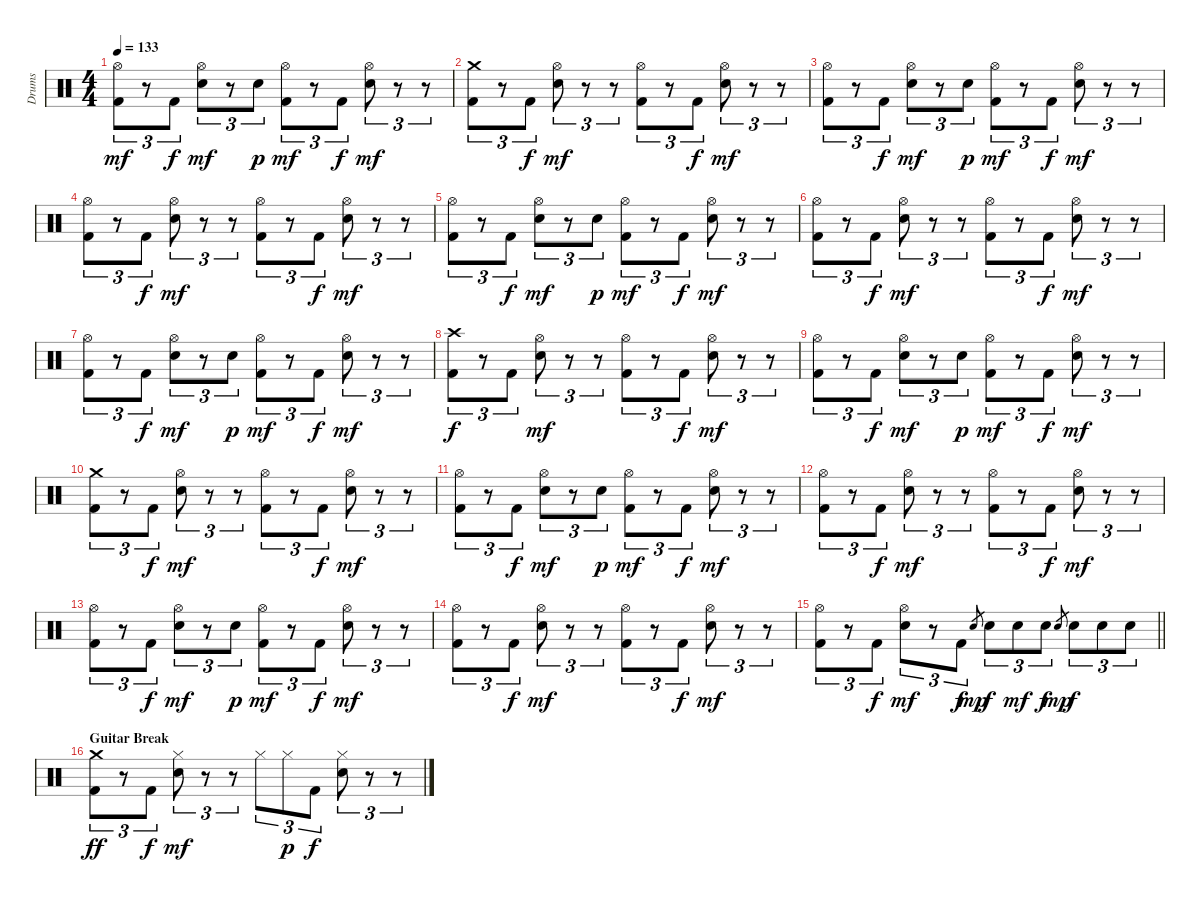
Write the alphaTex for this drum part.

\track ("Drums" "Drums") {instrument percussion}
\staff {score}
\articulation defaults
\ts (4 4)
\tempo 133
\clef neutral
\ks c
("Hi-Hat (open)" "Kick (hit) 2").8{tu (3 2) dy mf} r.8{tu (3 2)} "Kick (hit) 2".8{tu (3 2) dy f} ("Hi-Hat (open)" "Electric Snare (hit)").8{tu (3 2) dy mf} r.8{tu (3 2)} "Electric Snare (hit)".8{tu (3 2) dy p} ("Hi-Hat (open)" "Kick (hit) 2").8{tu (3 2) dy mf} r.8{tu (3 2)} "Kick (hit) 2".8{tu (3 2) dy f} ("Hi-Hat (open)" "Electric Snare (hit)").8{tu (3 2) dy mf} r.8{tu (3 2)} r.8{tu (3 2)} |
("Crash medium (hit)" "Kick (hit) 2").8{tu (3 2)} r.8{tu (3 2)} "Kick (hit) 2".8{tu (3 2) dy f} ("Hi-Hat (open)" "Electric Snare (hit)").8{tu (3 2) dy mf} r.8{tu (3 2)} r.8{tu (3 2)} ("Hi-Hat (open)" "Kick (hit) 2").8{tu (3 2)} r.8{tu (3 2)} "Kick (hit) 2".8{tu (3 2) dy f} ("Hi-Hat (open)" "Electric Snare (hit)").8{tu (3 2) dy mf} r.8{tu (3 2)} r.8{tu (3 2)} |
("Hi-Hat (open)" "Kick (hit) 2").8{tu (3 2)} r.8{tu (3 2)} "Kick (hit) 2".8{tu (3 2) dy f} ("Hi-Hat (open)" "Electric Snare (hit)").8{tu (3 2) dy mf} r.8{tu (3 2)} "Electric Snare (hit)".8{tu (3 2) dy p} ("Hi-Hat (open)" "Kick (hit) 2").8{tu (3 2) dy mf} r.8{tu (3 2)} "Kick (hit) 2".8{tu (3 2) dy f} ("Hi-Hat (open)" "Electric Snare (hit)").8{tu (3 2) dy mf} r.8{tu (3 2)} r.8{tu (3 2)} |
("Hi-Hat (open)" "Kick (hit) 2").8{tu (3 2)} r.8{tu (3 2)} "Kick (hit) 2".8{tu (3 2) dy f} ("Hi-Hat (open)" "Electric Snare (hit)").8{tu (3 2) dy mf} r.8{tu (3 2)} r.8{tu (3 2)} ("Hi-Hat (open)" "Kick (hit) 2").8{tu (3 2)} r.8{tu (3 2)} "Kick (hit) 2".8{tu (3 2) dy f} ("Hi-Hat (open)" "Electric Snare (hit)").8{tu (3 2) dy mf} r.8{tu (3 2)} r.8{tu (3 2)} |
("Hi-Hat (open)" "Kick (hit) 2").8{tu (3 2)} r.8{tu (3 2)} "Kick (hit) 2".8{tu (3 2) dy f} ("Hi-Hat (open)" "Electric Snare (hit)").8{tu (3 2) dy mf} r.8{tu (3 2)} "Electric Snare (hit)".8{tu (3 2) dy p} ("Hi-Hat (open)" "Kick (hit) 2").8{tu (3 2) dy mf} r.8{tu (3 2)} "Kick (hit) 2".8{tu (3 2) dy f} ("Hi-Hat (open)" "Electric Snare (hit)").8{tu (3 2) dy mf} r.8{tu (3 2)} r.8{tu (3 2)} |
("Hi-Hat (open)" "Kick (hit) 2").8{tu (3 2)} r.8{tu (3 2)} "Kick (hit) 2".8{tu (3 2) dy f} ("Hi-Hat (open)" "Electric Snare (hit)").8{tu (3 2) dy mf} r.8{tu (3 2)} r.8{tu (3 2)} ("Hi-Hat (open)" "Kick (hit) 2").8{tu (3 2)} r.8{tu (3 2)} "Kick (hit) 2".8{tu (3 2) dy f} ("Hi-Hat (open)" "Electric Snare (hit)").8{tu (3 2) dy mf} r.8{tu (3 2)} r.8{tu (3 2)} |
("Hi-Hat (open)" "Kick (hit) 2").8{tu (3 2)} r.8{tu (3 2)} "Kick (hit) 2".8{tu (3 2) dy f} ("Hi-Hat (open)" "Electric Snare (hit)").8{tu (3 2) dy mf} r.8{tu (3 2)} "Electric Snare (hit)".8{tu (3 2) dy p} ("Hi-Hat (open)" "Kick (hit) 2").8{tu (3 2) dy mf} r.8{tu (3 2)} "Kick (hit) 2".8{tu (3 2) dy f} ("Hi-Hat (open)" "Electric Snare (hit)").8{tu (3 2) dy mf} r.8{tu (3 2)} r.8{tu (3 2)} |
("Crash high (hit)" "Kick (hit) 2").8{tu (3 2) dy f} r.8{tu (3 2)} "Kick (hit) 2".8{tu (3 2)} ("Hi-Hat (open)" "Electric Snare (hit)").8{tu (3 2) dy mf} r.8{tu (3 2)} r.8{tu (3 2)} ("Hi-Hat (open)" "Kick (hit) 2").8{tu (3 2)} r.8{tu (3 2)} "Kick (hit) 2".8{tu (3 2) dy f} ("Hi-Hat (open)" "Electric Snare (hit)").8{tu (3 2) dy mf} r.8{tu (3 2)} r.8{tu (3 2)} |
("Hi-Hat (open)" "Kick (hit) 2").8{tu (3 2)} r.8{tu (3 2)} "Kick (hit) 2".8{tu (3 2) dy f} ("Hi-Hat (open)" "Electric Snare (hit)").8{tu (3 2) dy mf} r.8{tu (3 2)} "Electric Snare (hit)".8{tu (3 2) dy p} ("Hi-Hat (open)" "Kick (hit) 2").8{tu (3 2) dy mf} r.8{tu (3 2)} "Kick (hit) 2".8{tu (3 2) dy f} ("Hi-Hat (open)" "Electric Snare (hit)").8{tu (3 2) dy mf} r.8{tu (3 2)} r.8{tu (3 2)} |
("Crash medium (hit)" "Kick (hit) 2").8{tu (3 2)} r.8{tu (3 2)} "Kick (hit) 2".8{tu (3 2) dy f} ("Hi-Hat (open)" "Electric Snare (hit)").8{tu (3 2) dy mf} r.8{tu (3 2)} r.8{tu (3 2)} ("Hi-Hat (open)" "Kick (hit) 2").8{tu (3 2)} r.8{tu (3 2)} "Kick (hit) 2".8{tu (3 2) dy f} ("Hi-Hat (open)" "Electric Snare (hit)").8{tu (3 2) dy mf} r.8{tu (3 2)} r.8{tu (3 2)} |
("Hi-Hat (open)" "Kick (hit) 2").8{tu (3 2)} r.8{tu (3 2)} "Kick (hit) 2".8{tu (3 2) dy f} ("Hi-Hat (open)" "Electric Snare (hit)").8{tu (3 2) dy mf} r.8{tu (3 2)} "Electric Snare (hit)".8{tu (3 2) dy p} ("Hi-Hat (open)" "Kick (hit) 2").8{tu (3 2) dy mf} r.8{tu (3 2)} "Kick (hit) 2".8{tu (3 2) dy f} ("Hi-Hat (open)" "Electric Snare (hit)").8{tu (3 2) dy mf} r.8{tu (3 2)} r.8{tu (3 2)} |
("Hi-Hat (open)" "Kick (hit) 2").8{tu (3 2)} r.8{tu (3 2)} "Kick (hit) 2".8{tu (3 2) dy f} ("Hi-Hat (open)" "Electric Snare (hit)").8{tu (3 2) dy mf} r.8{tu (3 2)} r.8{tu (3 2)} ("Hi-Hat (open)" "Kick (hit) 2").8{tu (3 2)} r.8{tu (3 2)} "Kick (hit) 2".8{tu (3 2) dy f} ("Hi-Hat (open)" "Electric Snare (hit)").8{tu (3 2) dy mf} r.8{tu (3 2)} r.8{tu (3 2)} |
("Hi-Hat (open)" "Kick (hit) 2").8{tu (3 2)} r.8{tu (3 2)} "Kick (hit) 2".8{tu (3 2) dy f} ("Hi-Hat (open)" "Electric Snare (hit)").8{tu (3 2) dy mf} r.8{tu (3 2)} "Electric Snare (hit)".8{tu (3 2) dy p} ("Hi-Hat (open)" "Kick (hit) 2").8{tu (3 2) dy mf} r.8{tu (3 2)} "Kick (hit) 2".8{tu (3 2) dy f} ("Hi-Hat (open)" "Electric Snare (hit)").8{tu (3 2) dy mf} r.8{tu (3 2)} r.8{tu (3 2)} |
("Hi-Hat (open)" "Kick (hit) 2").8{tu (3 2)} r.8{tu (3 2)} "Kick (hit) 2".8{tu (3 2) dy f} ("Hi-Hat (open)" "Electric Snare (hit)").8{tu (3 2) dy mf} r.8{tu (3 2)} r.8{tu (3 2)} ("Hi-Hat (open)" "Kick (hit) 2").8{tu (3 2)} r.8{tu (3 2)} "Kick (hit) 2".8{tu (3 2) dy f} ("Hi-Hat (open)" "Electric Snare (hit)").8{tu (3 2) dy mf} r.8{tu (3 2)} r.8{tu (3 2)} |
\barLineRight lightlight
("Hi-Hat (open)" "Kick (hit) 2").8{tu (3 2)} r.8{tu (3 2)} "Kick (hit) 2".8{tu (3 2) dy f} ("Hi-Hat (open)" "Electric Snare (hit)").8{tu (3 2) dy mf} r.8{tu (3 2)} "Kick (hit) 2".8{tu (3 2) dy f} "Electric Snare (hit)".8{gr dy mp} "Electric Snare (hit)".8{tu (3 2) dy f} "Electric Snare (hit)".8{tu (3 2) dy mf} "Electric Snare (hit)".8{tu (3 2) dy f} "Electric Snare (hit)".8{gr dy mp} "Electric Snare (hit)".8{tu (3 2) dy f} "Electric Snare (hit)".8{tu (3 2)} "Electric Snare (hit)".8{tu (3 2)} |
\section ("" "Guitar Break")
("Crash medium (hit)" "Kick (hit) 2").8{tu (3 2) dy ff} r.8{tu (3 2)} "Kick (hit) 2".8{tu (3 2) dy f} ("Hi-Hat (closed)" "Electric Snare (hit)").8{tu (3 2) dy mf} r.8{tu (3 2)} r.8{tu (3 2)} "Hi-Hat (closed)".8{tu (3 2)} "Hi-Hat (closed)".8{tu (3 2) dy p} "Kick (hit) 2".8{tu (3 2) dy f} ("Hi-Hat (closed)" "Electric Snare (hit)").8{tu (3 2)} r.8{tu (3 2)} r.8{tu (3 2)}
